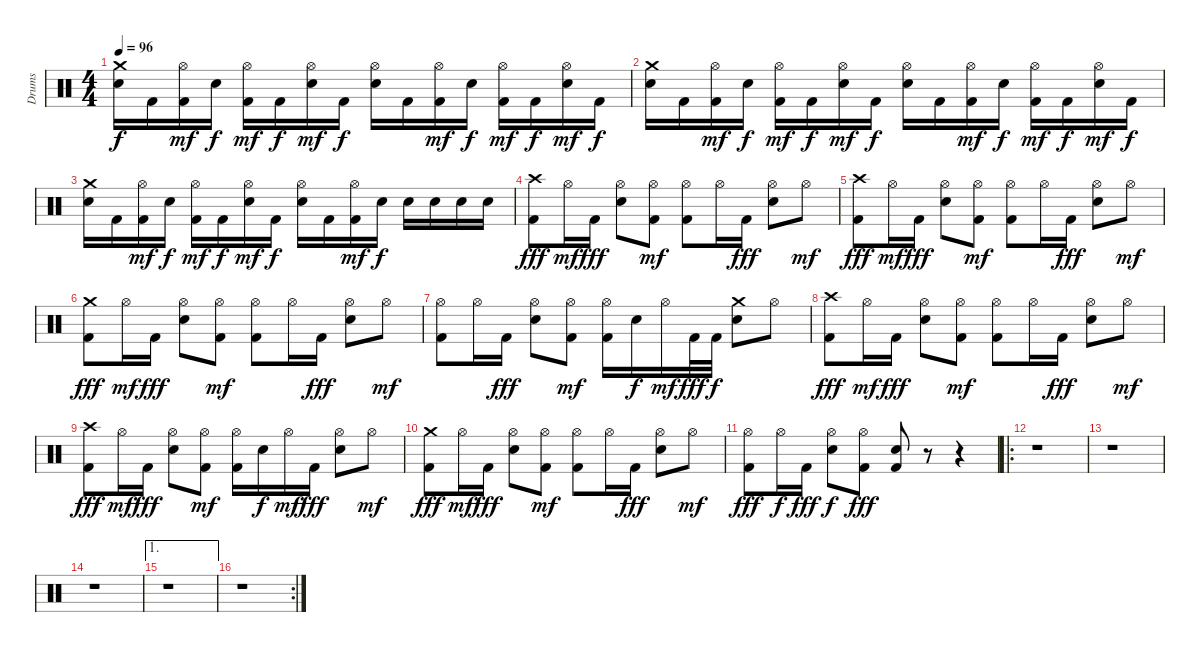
\track ("Drums" "Drums") {instrument percussion}
\staff {score}
\articulation defaults
\ts (4 4)
\tempo 96
\clef neutral
\ks c
("Crash medium (hit)" "Snare (hit) 2").16{dy f} "Kick (hit) 2".16 ("Kick (hit) 2" "Hi-Hat (open)").16{dy mf} "Snare (hit) 2".16{dy f} ("Kick (hit) 2" "Hi-Hat (open)").16{dy mf} "Kick (hit) 2".16{dy f} ("Hi-Hat (open)" "Snare (hit) 2").16{dy mf} "Kick (hit) 2".16{dy f} ("Hi-Hat (open)" "Snare (hit) 2").16 "Kick (hit) 2".16 ("Kick (hit) 2" "Hi-Hat (open)").16{dy mf} "Snare (hit) 2".16{dy f} ("Kick (hit) 2" "Hi-Hat (open)").16{dy mf} "Kick (hit) 2".16{dy f} ("Hi-Hat (open)" "Snare (hit) 2").16{dy mf} "Kick (hit) 2".16{dy f} |
("Crash medium (hit)" "Snare (hit) 2").16 "Kick (hit) 2".16 ("Kick (hit) 2" "Hi-Hat (open)").16{dy mf} "Snare (hit) 2".16{dy f} ("Kick (hit) 2" "Hi-Hat (open)").16{dy mf} "Kick (hit) 2".16{dy f} ("Hi-Hat (open)" "Snare (hit) 2").16{dy mf} "Kick (hit) 2".16{dy f} ("Hi-Hat (open)" "Snare (hit) 2").16 "Kick (hit) 2".16 ("Kick (hit) 2" "Hi-Hat (open)").16{dy mf} "Snare (hit) 2".16{dy f} ("Kick (hit) 2" "Hi-Hat (open)").16{dy mf} "Kick (hit) 2".16{dy f} ("Hi-Hat (open)" "Snare (hit) 2").16{dy mf} "Kick (hit) 2".16{dy f} |
("Crash medium (hit)" "Snare (hit) 2").16 "Kick (hit) 2".16 ("Kick (hit) 2" "Hi-Hat (open)").16{dy mf} "Snare (hit) 2".16{dy f} ("Kick (hit) 2" "Hi-Hat (open)").16{dy mf} "Kick (hit) 2".16{dy f} ("Hi-Hat (open)" "Snare (hit) 2").16{dy mf} "Kick (hit) 2".16{dy f} ("Hi-Hat (open)" "Snare (hit) 2").16 "Kick (hit) 2".16 ("Kick (hit) 2" "Hi-Hat (open)").16{dy mf} "Snare (hit) 2".16{dy f} "Snare (hit) 2".16 "Snare (hit) 2".16 "Snare (hit) 2".16 "Snare (hit) 2".16 |
("Kick (hit) 2" "Crash high (hit)").8{dy fff} "Hi-Hat (open)".16{dy mf} "Kick (hit) 2".16{dy fff} ("Hi-Hat (open)" "Snare (hit) 2").8 ("Kick (hit) 2" "Hi-Hat (open)").8{dy mf} ("Kick (hit) 2" "Hi-Hat (open)").8 "Hi-Hat (open)".16 "Kick (hit) 2".16{dy fff} ("Hi-Hat (open)" "Snare (hit) 2").8 "Hi-Hat (open)".8{dy mf} |
("Kick (hit) 2" "Crash high (hit)").8{dy fff} "Hi-Hat (open)".16{dy mf} "Kick (hit) 2".16{dy fff} ("Hi-Hat (open)" "Snare (hit) 2").8 ("Kick (hit) 2" "Hi-Hat (open)").8{dy mf} ("Kick (hit) 2" "Hi-Hat (open)").8 "Hi-Hat (open)".16 "Kick (hit) 2".16{dy fff} ("Hi-Hat (open)" "Snare (hit) 2").8 "Hi-Hat (open)".8{dy mf} |
("Kick (hit) 2" "Crash medium (hit)").8{dy fff} "Hi-Hat (open)".16{dy mf} "Kick (hit) 2".16{dy fff} ("Hi-Hat (open)" "Snare (hit) 2").8 ("Kick (hit) 2" "Hi-Hat (open)").8{dy mf} ("Kick (hit) 2" "Hi-Hat (open)").8 "Hi-Hat (open)".16 "Kick (hit) 2".16{dy fff} ("Hi-Hat (open)" "Snare (hit) 2").8 "Hi-Hat (open)".8{dy mf} |
("Kick (hit) 2" "Hi-Hat (open)").8 "Hi-Hat (open)".16 "Kick (hit) 2".16{dy fff} ("Hi-Hat (open)" "Snare (hit) 2").8 ("Kick (hit) 2" "Hi-Hat (open)").8{dy mf} ("Kick (hit) 2" "Hi-Hat (open)").16 "Snare (hit) 2".16{dy f} "Hi-Hat (open)".16{dy mf} "Kick (hit) 2".32{dy fff} "Kick (hit) 2".32{dy f} ("Crash medium (hit)" "Snare (hit) 2").8 "Hi-Hat (open)".8 |
("Kick (hit) 2" "Crash high (hit)").8{dy fff} "Hi-Hat (open)".16{dy mf} "Kick (hit) 2".16{dy fff} ("Hi-Hat (open)" "Snare (hit) 2").8 ("Kick (hit) 2" "Hi-Hat (open)").8{dy mf} ("Kick (hit) 2" "Hi-Hat (open)").8 "Hi-Hat (open)".16 "Kick (hit) 2".16{dy fff} ("Hi-Hat (open)" "Snare (hit) 2").8 "Hi-Hat (open)".8{dy mf} |
("Kick (hit) 2" "Crash high (hit)").8{dy fff} "Hi-Hat (open)".16{dy mf} "Kick (hit) 2".16{dy fff} ("Hi-Hat (open)" "Snare (hit) 2").8 ("Kick (hit) 2" "Hi-Hat (open)").8{dy mf} ("Kick (hit) 2" "Hi-Hat (open)").16 "Snare (hit) 2".16{dy f} "Hi-Hat (open)".16{dy mf} "Kick (hit) 2".16{dy fff} ("Hi-Hat (open)" "Snare (hit) 2").8 "Hi-Hat (open)".8{dy mf} |
("Kick (hit) 2" "Crash medium (hit)").8{dy fff} "Hi-Hat (open)".16{dy mf} "Kick (hit) 2".16{dy fff} ("Hi-Hat (open)" "Snare (hit) 2").8 ("Kick (hit) 2" "Hi-Hat (open)").8{dy mf} ("Kick (hit) 2" "Hi-Hat (open)").8 "Hi-Hat (open)".16 "Kick (hit) 2".16{dy fff} ("Hi-Hat (open)" "Snare (hit) 2").8 "Hi-Hat (open)".8{dy mf} |
("Kick (hit) 2" "Hi-Hat (open)").8{dy fff} "Hi-Hat (open)".16{dy f} "Kick (hit) 2".16{dy fff} ("Hi-Hat (open)" "Snare (hit) 2").8{dy f} ("Kick (hit) 2" "Hi-Hat (open)").8{dy fff} ("Kick (hit) 2" "Snare (hit) 2").8 r.8 r.4 |
\ro
r.1 |
r.1 |
r.1 |
\ae 1
r.1 |
\rc 2
r.1
